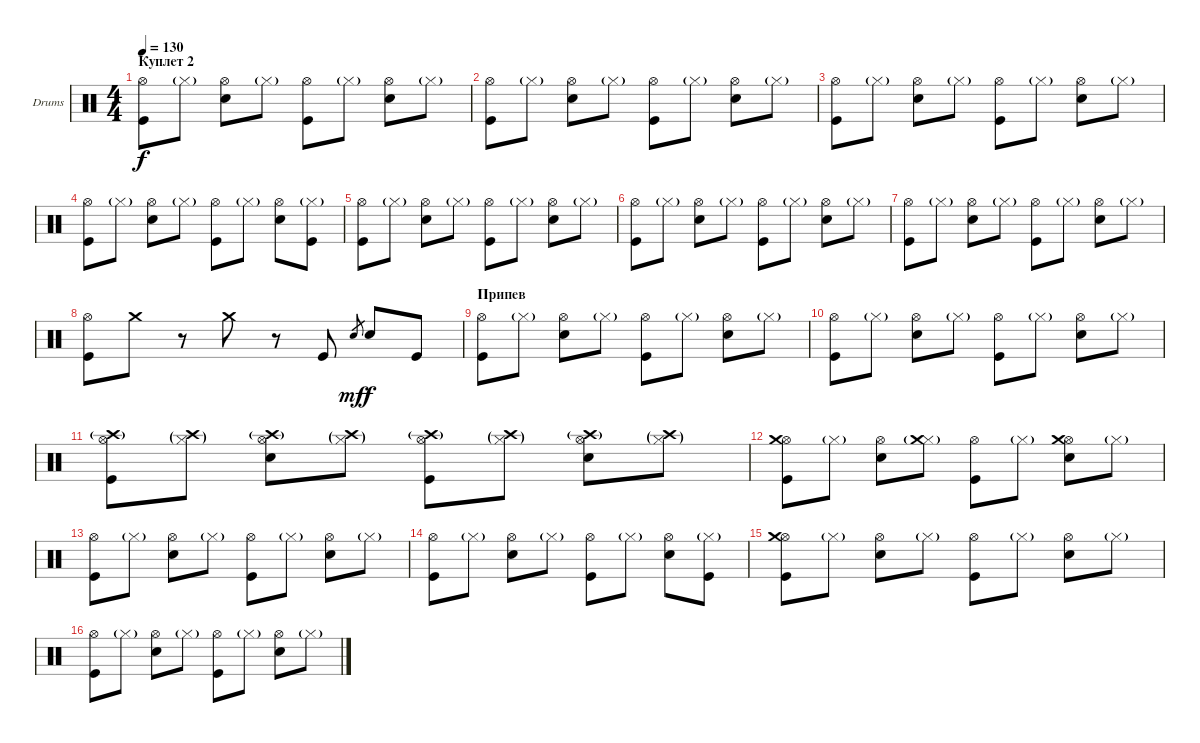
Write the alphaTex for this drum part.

\bracketExtendMode groupsimilarinstruments
\firstSystemTrackNameOrientation horizontal
\otherSystemsTrackNameOrientation horizontal
\track ("Drumkit" "Drums") {instrument percussion}
\staff {score}
\articulation defaults
\ts (4 4)
\section ("" "Куплет 2")
\tempo 130
\clef neutral
\ks c
("Kick (hit)" "Hi-Hat (open)").8{dy f} "Hi-Hat (closed)"{g}.8 ("Snare (hit) 2" "Hi-Hat (open)").8 "Hi-Hat (closed)"{g}.8 ("Kick (hit)" "Hi-Hat (open)").8 "Hi-Hat (closed)"{g}.8 ("Snare (hit) 2" "Hi-Hat (open)").8 "Hi-Hat (closed)"{g}.8 |
("Kick (hit)" "Hi-Hat (open)").8 "Hi-Hat (closed)"{g}.8 ("Snare (hit) 2" "Hi-Hat (open)").8 "Hi-Hat (closed)"{g}.8 ("Kick (hit)" "Hi-Hat (open)").8 "Hi-Hat (closed)"{g}.8 ("Snare (hit) 2" "Hi-Hat (open)").8 "Hi-Hat (closed)"{g}.8 |
("Kick (hit)" "Hi-Hat (open)").8 "Hi-Hat (closed)"{g}.8 ("Snare (hit) 2" "Hi-Hat (open)").8 "Hi-Hat (closed)"{g}.8 ("Kick (hit)" "Hi-Hat (open)").8 "Hi-Hat (closed)"{g}.8 ("Snare (hit) 2" "Hi-Hat (open)").8 "Hi-Hat (closed)"{g}.8 |
("Kick (hit)" "Hi-Hat (open)").8 "Hi-Hat (closed)"{g}.8 ("Snare (hit) 2" "Hi-Hat (open)").8 "Hi-Hat (closed)"{g}.8 ("Kick (hit)" "Hi-Hat (open)").8 "Hi-Hat (closed)"{g}.8 ("Snare (hit) 2" "Hi-Hat (open)").8 ("Kick (hit)" "Hi-Hat (closed)"{g}).8 |
("Kick (hit)" "Hi-Hat (open)").8 "Hi-Hat (closed)"{g}.8 ("Snare (hit) 2" "Hi-Hat (open)").8 "Hi-Hat (closed)"{g}.8 ("Kick (hit)" "Hi-Hat (open)").8 "Hi-Hat (closed)"{g}.8 ("Snare (hit) 2" "Hi-Hat (open)").8 "Hi-Hat (closed)"{g}.8 |
("Kick (hit)" "Hi-Hat (open)").8 "Hi-Hat (closed)"{g}.8 ("Snare (hit) 2" "Hi-Hat (open)").8 "Hi-Hat (closed)"{g}.8 ("Kick (hit)" "Hi-Hat (open)").8 "Hi-Hat (closed)"{g}.8 ("Snare (hit) 2" "Hi-Hat (open)").8 "Hi-Hat (closed)"{g}.8 |
("Kick (hit)" "Hi-Hat (open)").8 "Hi-Hat (closed)"{g}.8 ("Snare (hit) 2" "Hi-Hat (open)").8 "Hi-Hat (closed)"{g}.8 ("Kick (hit)" "Hi-Hat (open)").8 "Hi-Hat (closed)"{g}.8 ("Snare (hit) 2" "Hi-Hat (open)").8 "Hi-Hat (closed)"{g}.8 |
("Kick (hit)" "Hi-Hat (open)").8 "Crash medium (hit)".8 r.8 "Crash medium (hit)".8 r.8 "Kick (hit)".8 "Snare (hit) 2".8{gr dy mf} "Snare (hit) 2".8{dy f} "Kick (hit)".8 |
\section ("" "Припев")
("Kick (hit)" "Hi-Hat (open)").8 "Hi-Hat (closed)"{g}.8 ("Snare (hit) 2" "Hi-Hat (open)").8 "Hi-Hat (closed)"{g}.8 ("Kick (hit)" "Hi-Hat (open)").8 "Hi-Hat (closed)"{g}.8 ("Snare (hit) 2" "Hi-Hat (open)").8 "Hi-Hat (closed)"{g}.8 |
("Kick (hit)" "Hi-Hat (open)").8 "Hi-Hat (closed)"{g}.8 ("Snare (hit) 2" "Hi-Hat (open)").8 "Hi-Hat (closed)"{g}.8 ("Kick (hit)" "Hi-Hat (open)").8 "Hi-Hat (closed)"{g}.8 ("Snare (hit) 2" "Hi-Hat (open)").8 "Hi-Hat (closed)"{g}.8 |
("Kick (hit)" "Hi-Hat (open)" "Crash high (hit)"{g}).8 ("Hi-Hat (closed)"{g} "Crash high (hit)"{g}).8 ("Snare (hit) 2" "Hi-Hat (open)" "Crash high (hit)"{g}).8 ("Hi-Hat (closed)"{g} "Crash high (hit)"{g}).8 ("Kick (hit)" "Hi-Hat (open)" "Crash high (hit)"{g}).8 ("Hi-Hat (closed)"{g} "Crash high (hit)"{g}).8 ("Snare (hit) 2" "Hi-Hat (open)" "Crash high (hit)"{g}).8 ("Hi-Hat (closed)"{g} "Crash high (hit)"{g}).8 |
("Kick (hit)" "Hi-Hat (open)" "Crash medium (hit)").8 "Hi-Hat (closed)"{g}.8 ("Snare (hit) 2" "Hi-Hat (open)").8 ("Hi-Hat (closed)"{g} "Crash medium (hit)").8 ("Kick (hit)" "Hi-Hat (open)").8 "Hi-Hat (closed)"{g}.8 ("Snare (hit) 2" "Hi-Hat (open)" "Crash medium (hit)").8 "Hi-Hat (closed)"{g}.8 |
("Kick (hit)" "Hi-Hat (open)").8 "Hi-Hat (closed)"{g}.8 ("Snare (hit) 2" "Hi-Hat (open)").8 "Hi-Hat (closed)"{g}.8 ("Kick (hit)" "Hi-Hat (open)").8 "Hi-Hat (closed)"{g}.8 ("Snare (hit) 2" "Hi-Hat (open)").8 "Hi-Hat (closed)"{g}.8 |
("Kick (hit)" "Hi-Hat (open)").8 "Hi-Hat (closed)"{g}.8 ("Snare (hit) 2" "Hi-Hat (open)").8 "Hi-Hat (closed)"{g}.8 ("Kick (hit)" "Hi-Hat (open)").8 "Hi-Hat (closed)"{g}.8 ("Snare (hit) 2" "Hi-Hat (open)").8 ("Kick (hit)" "Hi-Hat (closed)"{g}).8 |
("Kick (hit)" "Hi-Hat (open)" "Crash medium (hit)").8 "Hi-Hat (closed)"{g}.8 ("Snare (hit) 2" "Hi-Hat (open)").8 "Hi-Hat (closed)"{g}.8 ("Kick (hit)" "Hi-Hat (open)").8 "Hi-Hat (closed)"{g}.8 ("Snare (hit) 2" "Hi-Hat (open)").8 "Hi-Hat (closed)"{g}.8 |
("Kick (hit)" "Hi-Hat (open)").8 "Hi-Hat (closed)"{g}.8 ("Snare (hit) 2" "Hi-Hat (open)").8 "Hi-Hat (closed)"{g}.8 ("Kick (hit)" "Hi-Hat (open)").8 "Hi-Hat (closed)"{g}.8 ("Snare (hit) 2" "Hi-Hat (open)").8 "Hi-Hat (closed)"{g}.8
